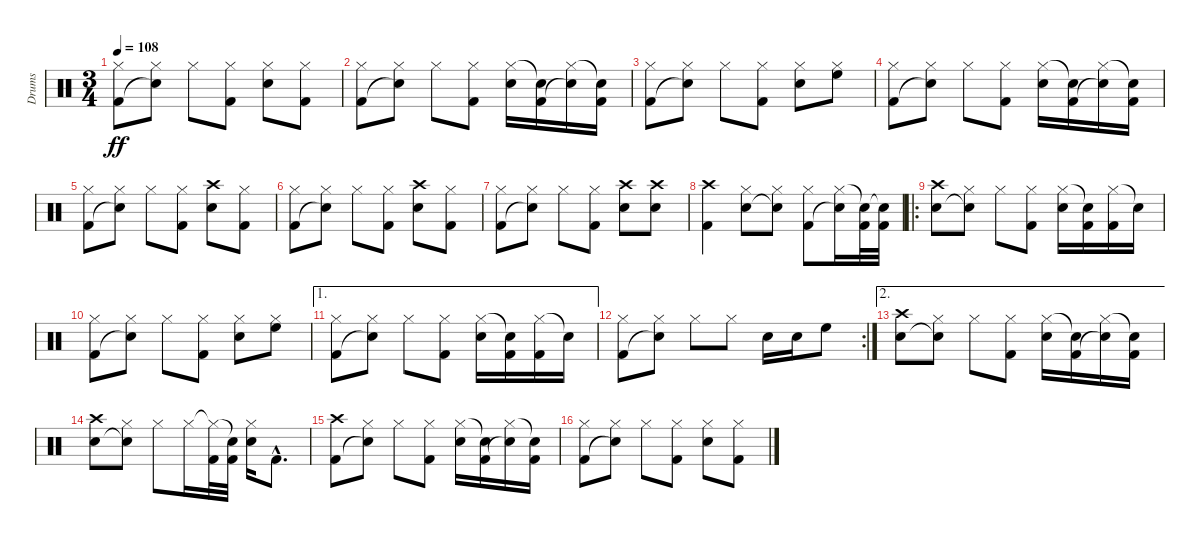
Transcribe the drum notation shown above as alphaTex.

\track ("Drums" "Drums") {instrument percussion}
\staff {score}
\articulation defaults
\ts (3 4)
\tempo 108
\clef neutral
\ks c
("Hi-Hat (closed)" "Kick (hit) 2").8{dy ff} ("Hi-Hat (closed)" "Snare (hit)"{t}).8 "Hi-Hat (closed)".8 ("Hi-Hat (closed)" "Kick (hit) 2").8 ("Hi-Hat (closed)" "Snare (hit) 2").8 ("Hi-Hat (closed)" "Kick (hit) 2").8 |
("Hi-Hat (closed)" "Kick (hit) 2").8 ("Hi-Hat (closed)" "Snare (hit)"{t}).8 "Hi-Hat (closed)".8 ("Hi-Hat (closed)" "Kick (hit) 2").8 ("Hi-Hat (closed)" "Snare (hit) 2").16 ("Snare (hit)"{t} "Kick (hit) 2").16 ("Hi-Hat (closed)" "Snare (hit)"{t}).16 ("Snare (hit)"{t} "Kick (hit) 2").16 |
("Hi-Hat (closed)" "Kick (hit) 2").8 ("Hi-Hat (closed)" "Snare (hit)"{t}).8 "Hi-Hat (closed)".8 ("Hi-Hat (closed)" "Kick (hit) 2").8 ("Hi-Hat (closed)" "Snare (hit) 2").8 ("Hi-Hat (closed)" "High Floor Tom (hit)").8 |
("Hi-Hat (closed)" "Kick (hit) 2").8 ("Hi-Hat (closed)" "Snare (hit)"{t}).8 "Hi-Hat (closed)".8 ("Hi-Hat (closed)" "Kick (hit) 2").8 ("Hi-Hat (closed)" "Snare (hit) 2").16 ("Snare (hit)"{t} "Kick (hit) 2").16 ("Hi-Hat (closed)" "Snare (hit)"{t}).16 ("Snare (hit)"{t} "Kick (hit) 2").16 |
("Hi-Hat (closed)" "Kick (hit) 2").8 ("Hi-Hat (closed)" "Snare (hit)"{t}).8 "Hi-Hat (closed)".8 ("Hi-Hat (closed)" "Kick (hit) 2").8 ("Crash high (hit)" "Snare (hit) 2").8 ("Hi-Hat (closed)" "Kick (hit) 2").8 |
("Hi-Hat (closed)" "Kick (hit) 2").8 ("Hi-Hat (closed)" "Snare (hit)"{t}).8 "Hi-Hat (closed)".8 ("Hi-Hat (closed)" "Kick (hit) 2").8 ("Crash high (hit)" "Snare (hit) 2").8 ("Hi-Hat (closed)" "Kick (hit) 2").8 |
("Hi-Hat (closed)" "Kick (hit) 2").8 ("Hi-Hat (closed)" "Snare (hit)"{t}).8 "Hi-Hat (closed)".8 ("Hi-Hat (closed)" "Kick (hit) 2").8 ("Crash high (hit)" "Snare (hit) 2").8 ("Crash high (hit)" "Snare (hit) 2").8 |
("Crash high (hit)" "Kick (hit) 2").4 ("Hi-Hat (closed)" "Snare (hit) 2").8 ("Hi-Hat (closed)" "Snare (hit)"{t}).8 ("Hi-Hat (closed)" "Kick (hit) 2").8 ("Hi-Hat (closed)" "Snare (hit)"{t}).16 ("Snare (hit)"{t} "Kick (hit) 2").32 ("Snare (hit)"{t} "Kick (hit) 2").32 |
\ro
("Crash high (hit)" "Snare (hit) 2").8 ("Hi-Hat (closed)" "Snare (hit)"{t}).8 "Hi-Hat (closed)".8 ("Hi-Hat (closed)" "Kick (hit) 2").8 ("Hi-Hat (closed)" "Snare (hit) 2").16 ("Snare (hit)"{t} "Kick (hit) 2").16 ("Hi-Hat (closed)" "Kick (hit) 2").16 "Snare (hit)"{t}.16 |
("Hi-Hat (closed)" "Kick (hit) 2").8 ("Hi-Hat (closed)" "Snare (hit)"{t}).8 "Hi-Hat (closed)".8 ("Hi-Hat (closed)" "Kick (hit) 2").8 ("Hi-Hat (closed)" "Snare (hit) 2").8 ("Hi-Hat (closed)" "High Floor Tom (hit)").8 |
\ae 1
("Hi-Hat (closed)" "Kick (hit) 2").8 ("Hi-Hat (closed)" "Snare (hit)"{t}).8 "Hi-Hat (closed)".8 ("Hi-Hat (closed)" "Kick (hit) 2").8 ("Hi-Hat (closed)" "Snare (hit) 2").16 ("Snare (hit)"{t} "Kick (hit) 2").16 ("Hi-Hat (closed)" "Kick (hit) 2").16 "Snare (hit)"{t}.16 |
\rc 2
("Hi-Hat (closed)" "Kick (hit) 2").8 ("Hi-Hat (closed)" "Snare (hit)"{t}).8 "Hi-Hat (closed)".8 "Hi-Hat (closed)".8 "Snare (hit) 2".16 "Snare (hit) 2".16 "High Floor Tom (hit)".8 |
\ae 2
("Crash high (hit)" "Snare (hit) 2").8 ("Hi-Hat (closed)" "Snare (hit)"{t}).8 "Hi-Hat (closed)".8 ("Hi-Hat (closed)" "Kick (hit) 2").8 ("Hi-Hat (closed)" "Snare (hit) 2").16 ("Snare (hit)"{t} "Kick (hit) 2").16 ("Hi-Hat (closed)" "Snare (hit)"{t}).16 ("Snare (hit)"{t} "Kick (hit) 2").16 |
("Crash high (hit)" "Snare (hit) 2").8 ("Hi-Hat (closed)" "Snare (hit)"{t}).8 "Hi-Hat (closed)".8 "Hi-Hat (closed)".16 ("Hi-Hat (closed)"{t} "Kick (hit) 2").32 ("Snare (hit)"{t} "Kick (hit) 2").32 ("Hi-Hat (closed)" "Snare (hit) 2").16 "Kick (hit) 2"{hac}.8{d} |
("Crash high (hit)" "Kick (hit) 2").8 ("Hi-Hat (closed)" "Snare (hit)"{t}).8 "Hi-Hat (closed)".8 ("Hi-Hat (closed)" "Kick (hit) 2").8 ("Hi-Hat (closed)" "Snare (hit) 2").16 ("Snare (hit)"{t} "Kick (hit) 2").16 ("Hi-Hat (closed)" "Snare (hit)"{t}).16 ("Snare (hit)"{t} "Kick (hit) 2").16 |
("Hi-Hat (closed)" "Kick (hit) 2").8 ("Hi-Hat (closed)" "Snare (hit)"{t}).8 "Hi-Hat (closed)".8 ("Hi-Hat (closed)" "Kick (hit) 2").8 ("Hi-Hat (closed)" "Snare (hit) 2").8 ("Hi-Hat (closed)" "Kick (hit) 2").8
